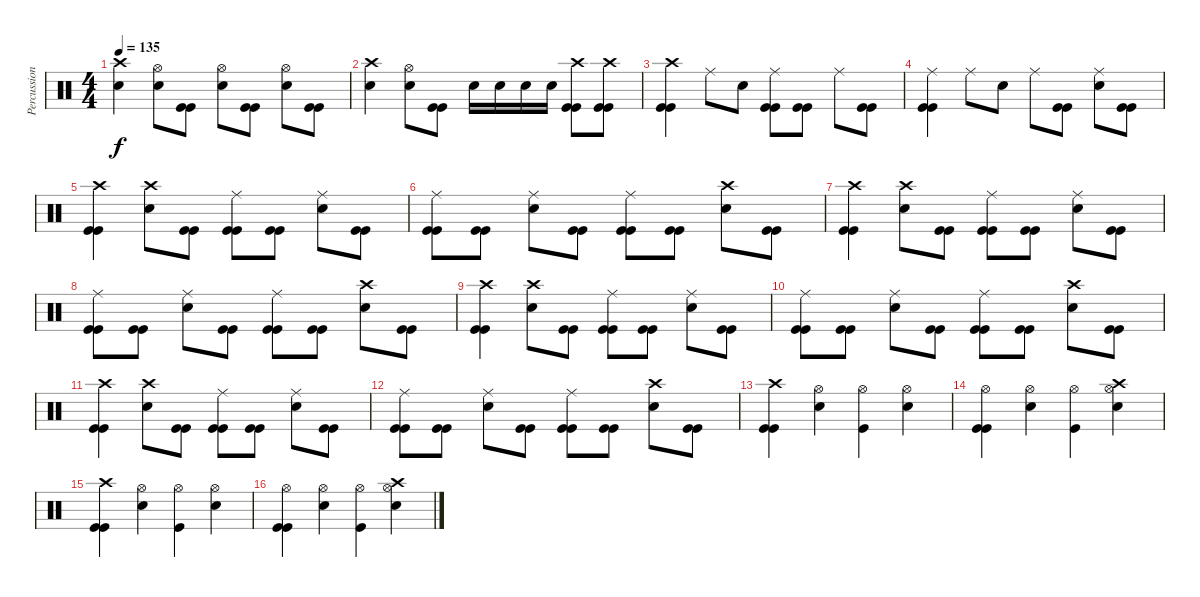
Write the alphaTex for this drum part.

\track ("Percussion" "Percussion") {instrument percussion}
\staff {score}
\articulation defaults
\ts (4 4)
\tempo 135
\clef neutral
\ks c
("Crash high (hit)" "Electric Snare (hit)").4{dy f} ("Hi-Hat (open)" "Electric Snare (hit)").8 ("Kick (hit)" "Kick (hit)").8 ("Hi-Hat (open)" "Electric Snare (hit)").8 ("Kick (hit)" "Kick (hit)").8 ("Hi-Hat (open)" "Electric Snare (hit)").8 ("Kick (hit)" "Kick (hit)").8 |
("Crash high (hit)" "Electric Snare (hit)").4 ("Hi-Hat (open)" "Electric Snare (hit)").8 ("Kick (hit)" "Kick (hit)").8 "Electric Snare (hit)".16 "Electric Snare (hit)".16 "Electric Snare (hit)".16 "Electric Snare (hit)".16 ("Crash high (hit)" "Kick (hit)" "Kick (hit)").8 ("Crash high (hit)" "Kick (hit)" "Kick (hit)").8 |
("Crash high (hit)" "Kick (hit)" "Kick (hit)").4 "Ride (middle)".8 "Electric Snare (hit)".8 ("Ride (middle)" "Kick (hit)" "Kick (hit)").8 ("Kick (hit)" "Kick (hit)").8 "Ride (middle)".8 ("Kick (hit)" "Kick (hit)").8 |
("Ride (middle)" "Kick (hit)" "Kick (hit)").4 "Ride (middle)".8 "Electric Snare (hit)".8 "Ride (middle)".8 ("Kick (hit)" "Kick (hit)").8 ("Ride (middle)" "Electric Snare (hit)").8 ("Kick (hit)" "Kick (hit)").8 |
("Crash high (hit)" "Kick (hit)" "Kick (hit)").4 ("Crash high (hit)" "Electric Snare (hit)").8 ("Kick (hit)" "Kick (hit)").8 ("Ride (middle)" "Kick (hit)" "Kick (hit)").8 ("Kick (hit)" "Kick (hit)").8 ("Ride (middle)" "Electric Snare (hit)").8 ("Kick (hit)" "Kick (hit)").8 |
("Ride (middle)" "Kick (hit)" "Kick (hit)").8 ("Kick (hit)" "Kick (hit)").8 ("Ride (middle)" "Electric Snare (hit)").8 ("Kick (hit)" "Kick (hit)").8 ("Ride (middle)" "Kick (hit)" "Kick (hit)").8 ("Kick (hit)" "Kick (hit)").8 ("Crash high (hit)" "Electric Snare (hit)").8 ("Kick (hit)" "Kick (hit)").8 |
("Crash high (hit)" "Kick (hit)" "Kick (hit)").4 ("Crash high (hit)" "Electric Snare (hit)").8 ("Kick (hit)" "Kick (hit)").8 ("Ride (middle)" "Kick (hit)" "Kick (hit)").8 ("Kick (hit)" "Kick (hit)").8 ("Ride (middle)" "Electric Snare (hit)").8 ("Kick (hit)" "Kick (hit)").8 |
("Ride (middle)" "Kick (hit)" "Kick (hit)").8 ("Kick (hit)" "Kick (hit)").8 ("Ride (middle)" "Electric Snare (hit)").8 ("Kick (hit)" "Kick (hit)").8 ("Ride (middle)" "Kick (hit)" "Kick (hit)").8 ("Kick (hit)" "Kick (hit)").8 ("Crash high (hit)" "Electric Snare (hit)").8 ("Kick (hit)" "Kick (hit)").8 |
("Crash high (hit)" "Kick (hit)" "Kick (hit)").4 ("Crash high (hit)" "Electric Snare (hit)").8 ("Kick (hit)" "Kick (hit)").8 ("Ride (middle)" "Kick (hit)" "Kick (hit)").8 ("Kick (hit)" "Kick (hit)").8 ("Ride (middle)" "Electric Snare (hit)").8 ("Kick (hit)" "Kick (hit)").8 |
("Ride (middle)" "Kick (hit)" "Kick (hit)").8 ("Kick (hit)" "Kick (hit)").8 ("Ride (middle)" "Electric Snare (hit)").8 ("Kick (hit)" "Kick (hit)").8 ("Ride (middle)" "Kick (hit)" "Kick (hit)").8 ("Kick (hit)" "Kick (hit)").8 ("Crash high (hit)" "Electric Snare (hit)").8 ("Kick (hit)" "Kick (hit)").8 |
("Crash high (hit)" "Kick (hit)" "Kick (hit)").4 ("Crash high (hit)" "Electric Snare (hit)").8 ("Kick (hit)" "Kick (hit)").8 ("Ride (middle)" "Kick (hit)" "Kick (hit)").8 ("Kick (hit)" "Kick (hit)").8 ("Ride (middle)" "Electric Snare (hit)").8 ("Kick (hit)" "Kick (hit)").8 |
("Ride (middle)" "Kick (hit)" "Kick (hit)").8 ("Kick (hit)" "Kick (hit)").8 ("Ride (middle)" "Electric Snare (hit)").8 ("Kick (hit)" "Kick (hit)").8 ("Ride (middle)" "Kick (hit)" "Kick (hit)").8 ("Kick (hit)" "Kick (hit)").8 ("Crash high (hit)" "Electric Snare (hit)").8 ("Kick (hit)" "Kick (hit)").8 |
("Crash high (hit)" "Kick (hit)" "Kick (hit)").4 ("Hi-Hat (open)" "Electric Snare (hit)").4 ("Hi-Hat (open)" "Kick (hit)").4 ("Hi-Hat (open)" "Electric Snare (hit)").4 |
("Hi-Hat (open)" "Kick (hit)" "Kick (hit)").4 ("Hi-Hat (open)" "Electric Snare (hit)").4 ("Hi-Hat (open)" "Kick (hit)").4 ("Crash high (hit)" "Hi-Hat (open)" "Electric Snare (hit)").4 |
("Crash high (hit)" "Kick (hit)" "Kick (hit)").4 ("Hi-Hat (open)" "Electric Snare (hit)").4 ("Hi-Hat (open)" "Kick (hit)").4 ("Hi-Hat (open)" "Electric Snare (hit)").4 |
("Hi-Hat (open)" "Kick (hit)" "Kick (hit)").4 ("Hi-Hat (open)" "Electric Snare (hit)").4 ("Hi-Hat (open)" "Kick (hit)").4 ("Crash high (hit)" "Hi-Hat (open)" "Electric Snare (hit)").4
